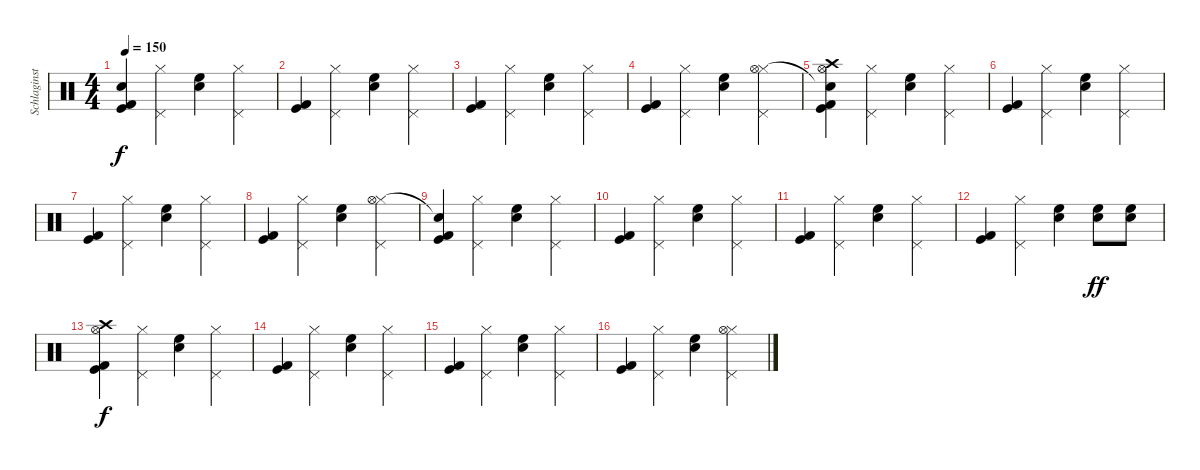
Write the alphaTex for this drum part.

\track ("Schlaginstrumente - Auswahl" "Schlaginst") {instrument percussion}
\staff {score}
\articulation defaults
\ts (4 4)
\tempo 150
\clef neutral
\ks c
("Kick (hit) 2" "Kick (hit)" "Snare (hit)"{t}).4{dy f} ("Pedal Hi-Hat (hit)" "Hi-Hat (closed)").4 ("High Floor Tom (hit)" "Snare (hit) 2").4 ("Pedal Hi-Hat (hit)" "Hi-Hat (closed)").4 |
("Kick (hit) 2" "Kick (hit)").4 ("Pedal Hi-Hat (hit)" "Hi-Hat (closed)").4 ("High Floor Tom (hit)" "Snare (hit) 2").4 ("Pedal Hi-Hat (hit)" "Hi-Hat (closed)").4 |
("Kick (hit) 2" "Kick (hit)").4 ("Pedal Hi-Hat (hit)" "Hi-Hat (closed)").4 ("High Floor Tom (hit)" "Snare (hit) 2").4 ("Pedal Hi-Hat (hit)" "Hi-Hat (closed)").4 |
("Kick (hit) 2" "Kick (hit)").4 ("Pedal Hi-Hat (hit)" "Hi-Hat (closed)").4 ("High Floor Tom (hit)" "Snare (hit) 2").4 ("Pedal Hi-Hat (hit)" "Hi-Hat (closed)" "Hi-Hat (open)").4 |
("Kick (hit) 2" "Kick (hit)" "Snare (hit)"{t} "Hi-Hat (open)" "Crash high (hit)").4 ("Pedal Hi-Hat (hit)" "Hi-Hat (closed)").4 ("High Floor Tom (hit)" "Snare (hit) 2").4 ("Pedal Hi-Hat (hit)" "Hi-Hat (closed)").4 |
("Kick (hit) 2" "Kick (hit)").4 ("Pedal Hi-Hat (hit)" "Hi-Hat (closed)").4 ("High Floor Tom (hit)" "Snare (hit) 2").4 ("Pedal Hi-Hat (hit)" "Hi-Hat (closed)").4 |
("Kick (hit) 2" "Kick (hit)").4 ("Pedal Hi-Hat (hit)" "Hi-Hat (closed)").4 ("High Floor Tom (hit)" "Snare (hit) 2").4 ("Pedal Hi-Hat (hit)" "Hi-Hat (closed)").4 |
("Kick (hit) 2" "Kick (hit)").4 ("Pedal Hi-Hat (hit)" "Hi-Hat (closed)").4 ("High Floor Tom (hit)" "Snare (hit) 2").4 ("Pedal Hi-Hat (hit)" "Hi-Hat (closed)" "Hi-Hat (open)").4 |
("Kick (hit) 2" "Kick (hit)" "Snare (hit)"{t}).4 ("Pedal Hi-Hat (hit)" "Hi-Hat (closed)").4 ("High Floor Tom (hit)" "Snare (hit) 2").4 ("Pedal Hi-Hat (hit)" "Hi-Hat (closed)").4 |
("Kick (hit) 2" "Kick (hit)").4 ("Pedal Hi-Hat (hit)" "Hi-Hat (closed)").4 ("High Floor Tom (hit)" "Snare (hit) 2").4 ("Pedal Hi-Hat (hit)" "Hi-Hat (closed)").4 |
("Kick (hit) 2" "Kick (hit)").4 ("Pedal Hi-Hat (hit)" "Hi-Hat (closed)").4 ("High Floor Tom (hit)" "Snare (hit) 2").4 ("Pedal Hi-Hat (hit)" "Hi-Hat (closed)").4 |
("Kick (hit) 2" "Kick (hit)").4 ("Pedal Hi-Hat (hit)" "Hi-Hat (closed)").4 ("High Floor Tom (hit)" "Snare (hit) 2").4 ("Electric Snare (hit)" "High Floor Tom (hit)").8{dy ff} ("Snare (hit) 2" "High Floor Tom (hit)").8 |
("Kick (hit) 2" "Kick (hit)" "Hi-Hat (open)" "Crash high (hit)").4{dy f} ("Pedal Hi-Hat (hit)" "Hi-Hat (closed)").4 ("High Floor Tom (hit)" "Snare (hit) 2").4 ("Pedal Hi-Hat (hit)" "Hi-Hat (closed)").4 |
("Kick (hit) 2" "Kick (hit)").4 ("Pedal Hi-Hat (hit)" "Hi-Hat (closed)").4 ("High Floor Tom (hit)" "Snare (hit) 2").4 ("Pedal Hi-Hat (hit)" "Hi-Hat (closed)").4 |
("Kick (hit) 2" "Kick (hit)").4 ("Pedal Hi-Hat (hit)" "Hi-Hat (closed)").4 ("High Floor Tom (hit)" "Snare (hit) 2").4 ("Pedal Hi-Hat (hit)" "Hi-Hat (closed)").4 |
("Kick (hit) 2" "Kick (hit)").4 ("Pedal Hi-Hat (hit)" "Hi-Hat (closed)").4 ("High Floor Tom (hit)" "Snare (hit) 2").4 ("Pedal Hi-Hat (hit)" "Hi-Hat (closed)" "Hi-Hat (open)").4
